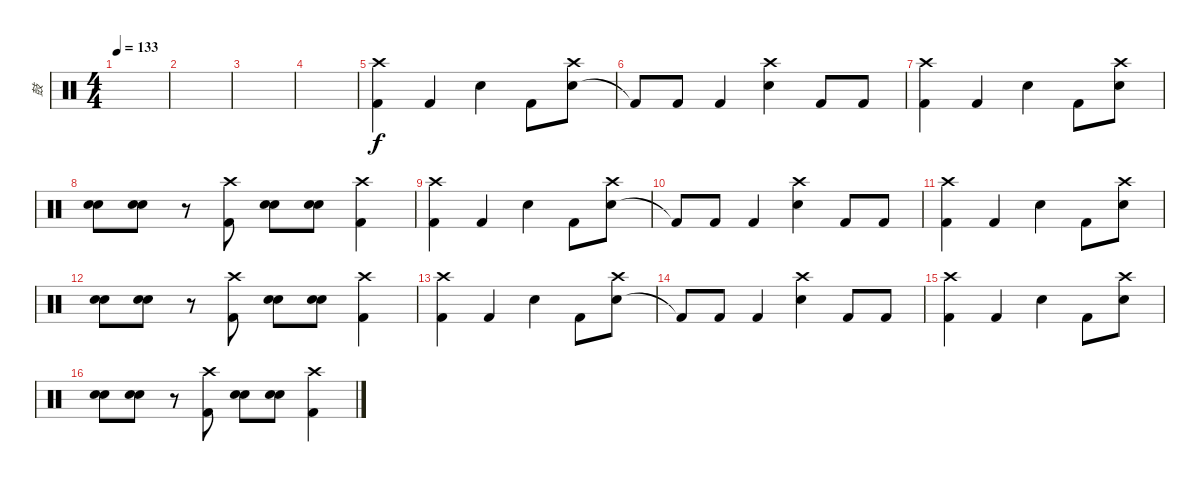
\track ("鼓" "鼓") {instrument percussion}
\staff {score}
\articulation defaults
\ts (4 4)
\tempo 133
\clef neutral
\ks c
|
|
|
|
("Kick (hit) 2" "Crash high (hit)").4 "Kick (hit) 2".4 "Electric Snare (hit)".4 "Kick (hit) 2".8 ("Electric Snare (hit)" "Crash high (hit)").8 |
"Kick (hit) 2"{t}.8 "Kick (hit) 2".8 "Kick (hit) 2".4 ("Electric Snare (hit)" "Crash high (hit)").4 "Kick (hit) 2".8 "Kick (hit) 2".8 |
("Kick (hit) 2" "Crash high (hit)").4 "Kick (hit) 2".4 "Electric Snare (hit)".4 "Kick (hit) 2".8 ("Electric Snare (hit)" "Crash high (hit)").8 |
("Electric Snare (hit)" "Snare (hit) 2").8 ("Electric Snare (hit)" "Snare (hit) 2").8 r.8 ("Kick (hit) 2" "Crash high (hit)").8 ("Electric Snare (hit)" "Snare (hit) 2").8 ("Electric Snare (hit)" "Snare (hit) 2").8 ("Kick (hit) 2" "Crash high (hit)").4 |
("Kick (hit) 2" "Crash high (hit)").4 "Kick (hit) 2".4 "Electric Snare (hit)".4 "Kick (hit) 2".8 ("Electric Snare (hit)" "Crash high (hit)").8 |
"Kick (hit) 2"{t}.8 "Kick (hit) 2".8 "Kick (hit) 2".4 ("Electric Snare (hit)" "Crash high (hit)").4 "Kick (hit) 2".8 "Kick (hit) 2".8 |
("Kick (hit) 2" "Crash high (hit)").4 "Kick (hit) 2".4 "Electric Snare (hit)".4 "Kick (hit) 2".8 ("Electric Snare (hit)" "Crash high (hit)").8 |
("Electric Snare (hit)" "Snare (hit) 2").8 ("Electric Snare (hit)" "Snare (hit) 2").8 r.8 ("Kick (hit) 2" "Crash high (hit)").8 ("Electric Snare (hit)" "Snare (hit) 2").8 ("Electric Snare (hit)" "Snare (hit) 2").8 ("Kick (hit) 2" "Crash high (hit)").4 |
("Kick (hit) 2" "Crash high (hit)").4 "Kick (hit) 2".4 "Electric Snare (hit)".4 "Kick (hit) 2".8 ("Electric Snare (hit)" "Crash high (hit)").8 |
"Kick (hit) 2"{t}.8 "Kick (hit) 2".8 "Kick (hit) 2".4 ("Electric Snare (hit)" "Crash high (hit)").4 "Kick (hit) 2".8 "Kick (hit) 2".8 |
("Kick (hit) 2" "Crash high (hit)").4 "Kick (hit) 2".4 "Electric Snare (hit)".4 "Kick (hit) 2".8 ("Electric Snare (hit)" "Crash high (hit)").8 |
("Electric Snare (hit)" "Snare (hit) 2").8 ("Electric Snare (hit)" "Snare (hit) 2").8 r.8 ("Kick (hit) 2" "Crash high (hit)").8 ("Electric Snare (hit)" "Snare (hit) 2").8 ("Electric Snare (hit)" "Snare (hit) 2").8 ("Kick (hit) 2" "Crash high (hit)").4
